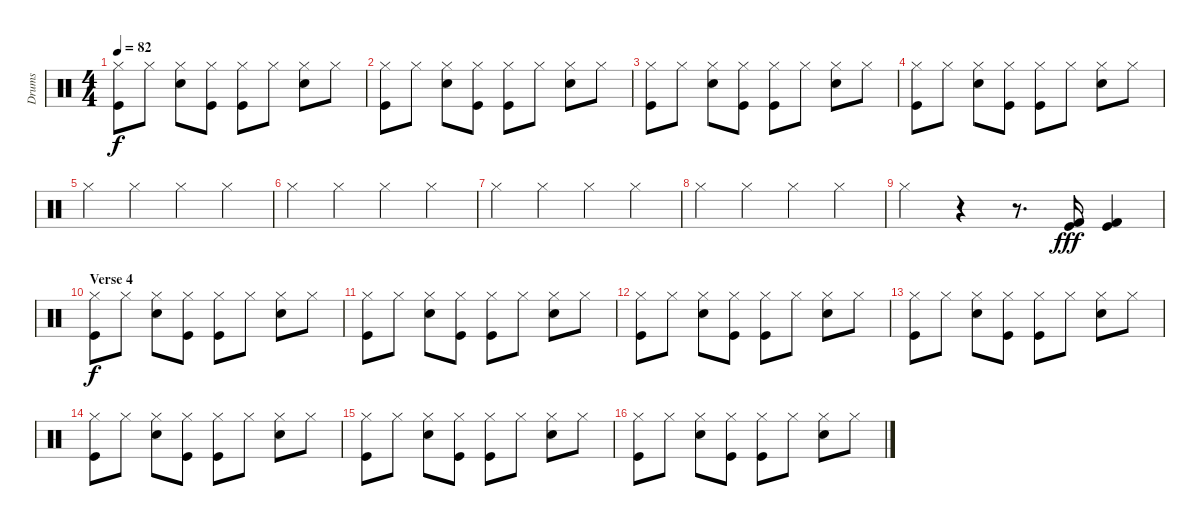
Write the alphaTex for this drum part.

\track ("Drums" "Drums") {instrument percussion}
\staff {score}
\articulation defaults
\ts (4 4)
\tempo 82
\clef neutral
\ks c
("Hi-Hat (closed)" "Kick (hit)").8{dy f} "Hi-Hat (closed)".8 ("Hi-Hat (closed)" "Electric Snare (hit)").8 ("Hi-Hat (closed)" "Kick (hit)").8 ("Hi-Hat (closed)" "Kick (hit)").8 "Hi-Hat (closed)".8 ("Hi-Hat (closed)" "Electric Snare (hit)").8 "Hi-Hat (closed)".8 |
("Hi-Hat (closed)" "Kick (hit)").8 "Hi-Hat (closed)".8 ("Hi-Hat (closed)" "Electric Snare (hit)").8 ("Hi-Hat (closed)" "Kick (hit)").8 ("Hi-Hat (closed)" "Kick (hit)").8 "Hi-Hat (closed)".8 ("Hi-Hat (closed)" "Electric Snare (hit)").8 "Hi-Hat (closed)".8 |
("Hi-Hat (closed)" "Kick (hit)").8 "Hi-Hat (closed)".8 ("Hi-Hat (closed)" "Electric Snare (hit)").8 ("Hi-Hat (closed)" "Kick (hit)").8 ("Hi-Hat (closed)" "Kick (hit)").8 "Hi-Hat (closed)".8 ("Hi-Hat (closed)" "Electric Snare (hit)").8 "Hi-Hat (closed)".8 |
("Hi-Hat (closed)" "Kick (hit)").8 "Hi-Hat (closed)".8 ("Hi-Hat (closed)" "Electric Snare (hit)").8 ("Hi-Hat (closed)" "Kick (hit)").8 ("Hi-Hat (closed)" "Kick (hit)").8 "Hi-Hat (closed)".8 ("Hi-Hat (closed)" "Electric Snare (hit)").8 "Hi-Hat (closed)".8 |
"Hi-Hat (closed)".4 "Hi-Hat (closed)".4 "Hi-Hat (closed)".4 "Hi-Hat (closed)".4 |
"Hi-Hat (closed)".4 "Hi-Hat (closed)".4 "Hi-Hat (closed)".4 "Hi-Hat (closed)".4 |
"Hi-Hat (closed)".4 "Hi-Hat (closed)".4 "Hi-Hat (closed)".4 "Hi-Hat (closed)".4 |
"Hi-Hat (closed)".4 "Hi-Hat (closed)".4 "Hi-Hat (closed)".4 "Hi-Hat (closed)".4 |
"Hi-Hat (closed)".4 r.4 r.8{d} ("Kick (hit)" "Kick (hit) 2").16{dy fff} ("Kick (hit)" "Kick (hit) 2").4 |
\section ("" "Verse 4")
("Hi-Hat (closed)" "Kick (hit)").8{dy f} "Hi-Hat (closed)".8 ("Hi-Hat (closed)" "Electric Snare (hit)").8 ("Hi-Hat (closed)" "Kick (hit)").8 ("Hi-Hat (closed)" "Kick (hit)").8 "Hi-Hat (closed)".8 ("Hi-Hat (closed)" "Electric Snare (hit)").8 "Hi-Hat (closed)".8 |
("Hi-Hat (closed)" "Kick (hit)").8 "Hi-Hat (closed)".8 ("Hi-Hat (closed)" "Electric Snare (hit)").8 ("Hi-Hat (closed)" "Kick (hit)").8 ("Hi-Hat (closed)" "Kick (hit)").8 "Hi-Hat (closed)".8 ("Hi-Hat (closed)" "Electric Snare (hit)").8 "Hi-Hat (closed)".8 |
("Hi-Hat (closed)" "Kick (hit)").8 "Hi-Hat (closed)".8 ("Hi-Hat (closed)" "Electric Snare (hit)").8 ("Hi-Hat (closed)" "Kick (hit)").8 ("Hi-Hat (closed)" "Kick (hit)").8 "Hi-Hat (closed)".8 ("Hi-Hat (closed)" "Electric Snare (hit)").8 "Hi-Hat (closed)".8 |
("Hi-Hat (closed)" "Kick (hit)").8 "Hi-Hat (closed)".8 ("Hi-Hat (closed)" "Electric Snare (hit)").8 ("Hi-Hat (closed)" "Kick (hit)").8 ("Hi-Hat (closed)" "Kick (hit)").8 "Hi-Hat (closed)".8 ("Hi-Hat (closed)" "Electric Snare (hit)").8 "Hi-Hat (closed)".8 |
("Hi-Hat (closed)" "Kick (hit)").8 "Hi-Hat (closed)".8 ("Hi-Hat (closed)" "Electric Snare (hit)").8 ("Hi-Hat (closed)" "Kick (hit)").8 ("Hi-Hat (closed)" "Kick (hit)").8 "Hi-Hat (closed)".8 ("Hi-Hat (closed)" "Electric Snare (hit)").8 "Hi-Hat (closed)".8 |
("Hi-Hat (closed)" "Kick (hit)").8 "Hi-Hat (closed)".8 ("Hi-Hat (closed)" "Electric Snare (hit)").8 ("Hi-Hat (closed)" "Kick (hit)").8 ("Hi-Hat (closed)" "Kick (hit)").8 "Hi-Hat (closed)".8 ("Hi-Hat (closed)" "Electric Snare (hit)").8 "Hi-Hat (closed)".8 |
("Hi-Hat (closed)" "Kick (hit)").8 "Hi-Hat (closed)".8 ("Hi-Hat (closed)" "Electric Snare (hit)").8 ("Hi-Hat (closed)" "Kick (hit)").8 ("Hi-Hat (closed)" "Kick (hit)").8 "Hi-Hat (closed)".8 ("Hi-Hat (closed)" "Electric Snare (hit)").8 "Hi-Hat (closed)".8
